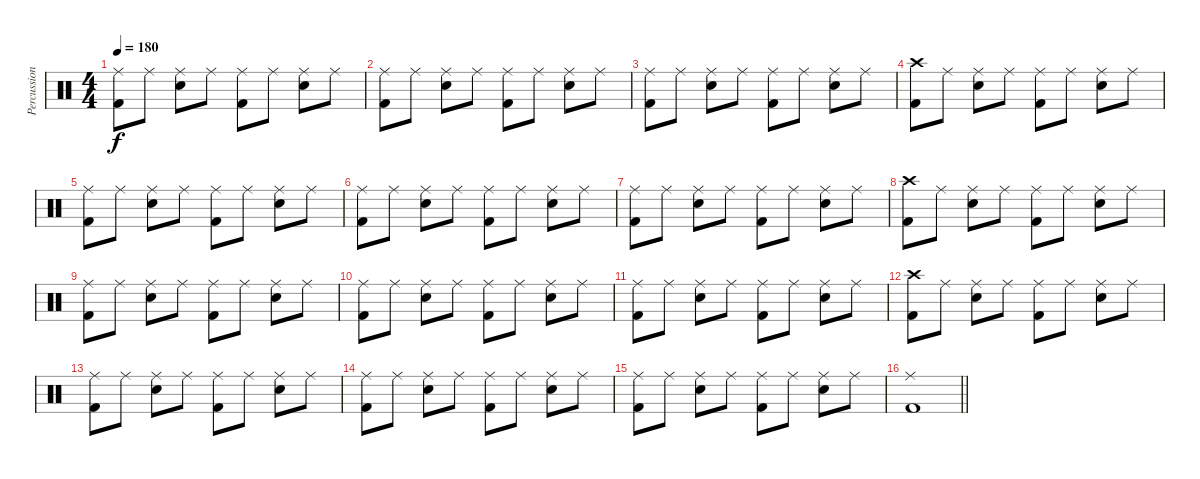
\track ("Percussion" "Percussion") {instrument percussion}
\staff {score}
\articulation defaults
\ts (4 4)
\tempo 180
\clef neutral
\ks c
("Ride (middle)" "Kick (hit) 2").8{dy f} "Ride (middle)".8 ("Ride (middle)" "Snare (hit) 2").8 "Ride (middle)".8 ("Ride (middle)" "Kick (hit) 2").8 "Ride (middle)".8 ("Ride (middle)" "Snare (hit) 2").8 "Ride (middle)".8 |
("Ride (middle)" "Kick (hit) 2").8 "Ride (middle)".8 ("Ride (middle)" "Snare (hit) 2").8 "Ride (middle)".8 ("Ride (middle)" "Kick (hit) 2").8 "Ride (middle)".8 ("Ride (middle)" "Snare (hit) 2").8 "Ride (middle)".8 |
("Ride (middle)" "Kick (hit) 2").8 "Ride (middle)".8 ("Ride (middle)" "Snare (hit) 2").8 "Ride (middle)".8 ("Ride (middle)" "Kick (hit) 2").8 "Ride (middle)".8 ("Ride (middle)" "Snare (hit) 2").8 "Ride (middle)".8 |
("Crash high (hit)" "Kick (hit) 2").8 "Ride (middle)".8 ("Ride (middle)" "Snare (hit) 2").8 "Ride (middle)".8 ("Ride (middle)" "Kick (hit) 2").8 "Ride (middle)".8 ("Ride (middle)" "Snare (hit) 2").8 "Ride (middle)".8 |
("Ride (middle)" "Kick (hit) 2").8 "Ride (middle)".8 ("Ride (middle)" "Snare (hit) 2").8 "Ride (middle)".8 ("Ride (middle)" "Kick (hit) 2").8 "Ride (middle)".8 ("Ride (middle)" "Snare (hit) 2").8 "Ride (middle)".8 |
("Ride (middle)" "Kick (hit) 2").8 "Ride (middle)".8 ("Ride (middle)" "Snare (hit) 2").8 "Ride (middle)".8 ("Ride (middle)" "Kick (hit) 2").8 "Ride (middle)".8 ("Ride (middle)" "Snare (hit) 2").8 "Ride (middle)".8 |
("Ride (middle)" "Kick (hit) 2").8 "Ride (middle)".8 ("Ride (middle)" "Snare (hit) 2").8 "Ride (middle)".8 ("Ride (middle)" "Kick (hit) 2").8 "Ride (middle)".8 ("Ride (middle)" "Snare (hit) 2").8 "Ride (middle)".8 |
("Crash high (hit)" "Kick (hit) 2").8 "Ride (middle)".8 ("Ride (middle)" "Snare (hit) 2").8 "Ride (middle)".8 ("Ride (middle)" "Kick (hit) 2").8 "Ride (middle)".8 ("Ride (middle)" "Snare (hit) 2").8 "Ride (middle)".8 |
("Ride (middle)" "Kick (hit) 2").8 "Ride (middle)".8 ("Ride (middle)" "Snare (hit) 2").8 "Ride (middle)".8 ("Ride (middle)" "Kick (hit) 2").8 "Ride (middle)".8 ("Ride (middle)" "Snare (hit) 2").8 "Ride (middle)".8 |
("Ride (middle)" "Kick (hit) 2").8 "Ride (middle)".8 ("Ride (middle)" "Snare (hit) 2").8 "Ride (middle)".8 ("Ride (middle)" "Kick (hit) 2").8 "Ride (middle)".8 ("Ride (middle)" "Snare (hit) 2").8 "Ride (middle)".8 |
("Ride (middle)" "Kick (hit) 2").8 "Ride (middle)".8 ("Ride (middle)" "Snare (hit) 2").8 "Ride (middle)".8 ("Ride (middle)" "Kick (hit) 2").8 "Ride (middle)".8 ("Ride (middle)" "Snare (hit) 2").8 "Ride (middle)".8 |
("Crash high (hit)" "Kick (hit) 2").8 "Ride (middle)".8 ("Ride (middle)" "Snare (hit) 2").8 "Ride (middle)".8 ("Ride (middle)" "Kick (hit) 2").8 "Ride (middle)".8 ("Ride (middle)" "Snare (hit) 2").8 "Ride (middle)".8 |
("Ride (middle)" "Kick (hit) 2").8 "Ride (middle)".8 ("Ride (middle)" "Snare (hit) 2").8 "Ride (middle)".8 ("Ride (middle)" "Kick (hit) 2").8 "Ride (middle)".8 ("Ride (middle)" "Snare (hit) 2").8 "Ride (middle)".8 |
("Ride (middle)" "Kick (hit) 2").8 "Ride (middle)".8 ("Ride (middle)" "Snare (hit) 2").8 "Ride (middle)".8 ("Ride (middle)" "Kick (hit) 2").8 "Ride (middle)".8 ("Ride (middle)" "Snare (hit) 2").8 "Ride (middle)".8 |
("Ride (middle)" "Kick (hit) 2").8 "Ride (middle)".8 ("Ride (middle)" "Snare (hit) 2").8 "Ride (middle)".8 ("Ride (middle)" "Kick (hit) 2").8 "Ride (middle)".8 ("Ride (middle)" "Snare (hit) 2").8 "Ride (middle)".8 |
\barLineRight lightlight
("Ride (middle)" "Kick (hit) 2").1
